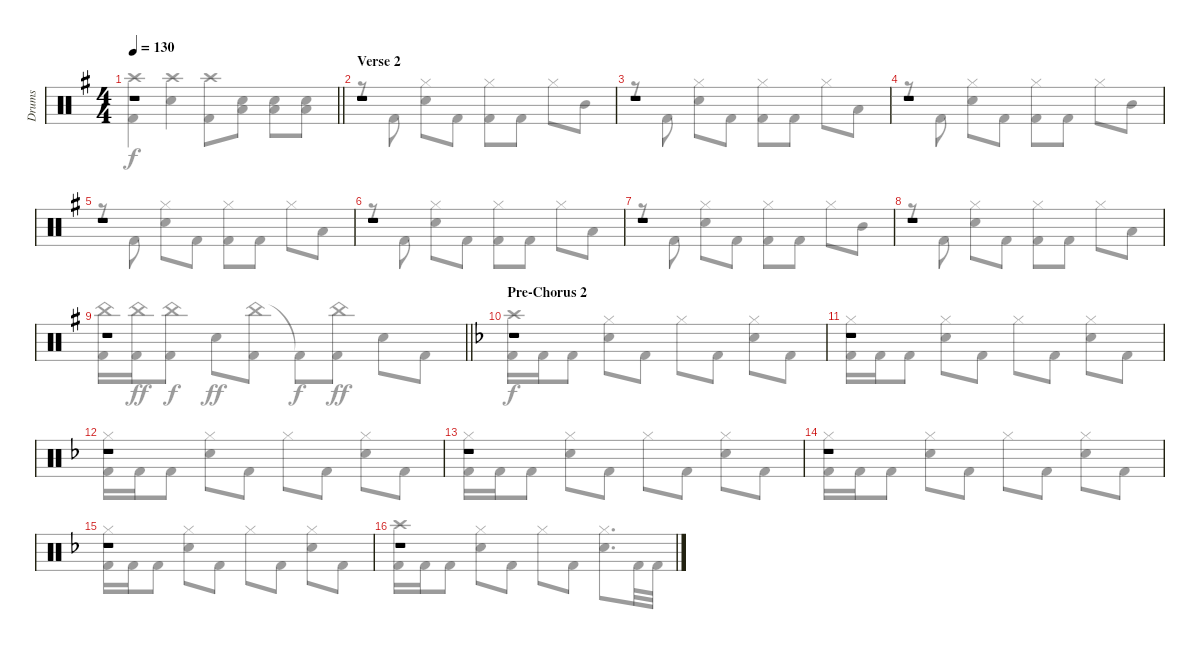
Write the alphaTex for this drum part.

\track ("Drums" "Drums") {instrument percussion}
\staff {score}
\articulation defaults
\voice
\ts (4 4)
\tempo 130
\clef neutral
\barLineRight lightlight
\ks eminor
r.1{dy ff} |
\section ("" "Verse 2")
r.1 |
r.1 |
r.1 |
r.1 |
r.1 |
r.1 |
r.1 |
\barLineRight lightlight
r.1 |
\section ("" "Pre-Chorus 2")
\ks dminor
r.1 |
r.1 |
r.1 |
r.1 |
r.1 |
r.1 |
r.1
\voice
\clef neutral
\ottava regular
\simile none
\barLineRight lightlight
\ks eminor
("Crash high (hit)" "Kick (hit) 2").4{dy f} ("Crash high (hit)" "Snare (hit) 2").4 ("Crash high (hit)" "Kick (hit) 2").8 ("Low Floor Tom (hit)" "Snare (hit) 2").8 ("Low Floor Tom (hit)" "Snare (hit) 2").8 ("Low Floor Tom (hit)" "Snare (hit) 2").8 |
r.8 "Kick (hit) 2".8 ("Hi-Hat (closed)" "Snare (hit) 2").8 "Kick (hit) 2".8 ("Hi-Hat (closed)" "Kick (hit) 2").8 "Kick (hit) 2".8 "Hi-Hat (closed)".8 "Mid Tom (hit)".8 |
r.8 "Kick (hit) 2".8 ("Hi-Hat (closed)" "Snare (hit) 2").8 "Kick (hit) 2".8 ("Hi-Hat (closed)" "Kick (hit) 2").8 "Kick (hit) 2".8 "Hi-Hat (closed)".8 "Low Tom (hit)".8 |
r.8 "Kick (hit) 2".8 ("Hi-Hat (closed)" "Snare (hit) 2").8 "Kick (hit) 2".8 ("Hi-Hat (closed)" "Kick (hit) 2").8 "Kick (hit) 2".8 "Hi-Hat (closed)".8 "Mid Tom (hit)".8 |
r.8 "Kick (hit) 2".8 ("Hi-Hat (closed)" "Snare (hit) 2").8 "Kick (hit) 2".8 ("Hi-Hat (closed)" "Kick (hit) 2").8 "Kick (hit) 2".8 "Hi-Hat (closed)".8 "Low Tom (hit)".8 |
r.8 "Kick (hit) 2".8 ("Hi-Hat (closed)" "Snare (hit) 2").8 "Kick (hit) 2".8 ("Hi-Hat (closed)" "Kick (hit) 2").8 "Kick (hit) 2".8 "Hi-Hat (closed)".8 "Low Tom (hit)".8 |
r.8 "Kick (hit) 2".8 ("Hi-Hat (closed)" "Snare (hit) 2").8 "Kick (hit) 2".8 ("Hi-Hat (closed)" "Kick (hit) 2").8 "Kick (hit) 2".8 "Hi-Hat (closed)".8 "Mid Tom (hit)".8 |
r.8 "Kick (hit) 2".8 ("Hi-Hat (closed)" "Snare (hit) 2").8 "Kick (hit) 2".8 ("Hi-Hat (closed)" "Kick (hit) 2").8 "Kick (hit) 2".8 "Hi-Hat (closed)".8 "Low Tom (hit)".8 |
\barLineRight lightlight
("China (hit)" "Kick (hit) 2").16 ("China (hit)" "Kick (hit) 2").16{dy ff} ("China (hit)" "Kick (hit) 2").8{dy f} "Snare (hit) 2".8{dy ff} ("China (hit)" "Kick (hit) 2").8 "Kick (hit) 2"{t}.8{dy f} ("China (hit)" "Kick (hit) 2").8{dy ff} "Snare (hit) 2".8 "Kick (hit) 2".8 |
\ks dminor
("Crash high (hit)" "Kick (hit) 2").16{dy f} "Kick (hit) 2".16 "Kick (hit) 2".8 ("Hi-Hat (closed)" "Snare (hit) 2").8 "Kick (hit) 2".8 "Hi-Hat (closed)".8 "Kick (hit) 2".8 ("Hi-Hat (closed)" "Snare (hit) 2").8 "Kick (hit) 2".8 |
("Hi-Hat (closed)" "Kick (hit) 2").16 "Kick (hit) 2".16 "Kick (hit) 2".8 ("Hi-Hat (closed)" "Snare (hit) 2").8 "Kick (hit) 2".8 "Hi-Hat (closed)".8 "Kick (hit) 2".8 ("Hi-Hat (closed)" "Snare (hit) 2").8 "Kick (hit) 2".8 |
("Hi-Hat (closed)" "Kick (hit) 2").16 "Kick (hit) 2".16 "Kick (hit) 2".8 ("Hi-Hat (closed)" "Snare (hit) 2").8 "Kick (hit) 2".8 "Hi-Hat (closed)".8 "Kick (hit) 2".8 ("Hi-Hat (closed)" "Snare (hit) 2").8 "Kick (hit) 2".8 |
("Hi-Hat (closed)" "Kick (hit) 2").16 "Kick (hit) 2".16 "Kick (hit) 2".8 ("Hi-Hat (closed)" "Snare (hit) 2").8 "Kick (hit) 2".8 "Hi-Hat (closed)".8 "Kick (hit) 2".8 ("Hi-Hat (closed)" "Snare (hit) 2").8 "Kick (hit) 2".8 |
("Hi-Hat (closed)" "Kick (hit) 2").16 "Kick (hit) 2".16 "Kick (hit) 2".8 ("Hi-Hat (closed)" "Snare (hit) 2").8 "Kick (hit) 2".8 "Hi-Hat (closed)".8 "Kick (hit) 2".8 ("Hi-Hat (closed)" "Snare (hit) 2").8 "Kick (hit) 2".8 |
("Hi-Hat (closed)" "Kick (hit) 2").16 "Kick (hit) 2".16 "Kick (hit) 2".8 ("Hi-Hat (closed)" "Snare (hit) 2").8 "Kick (hit) 2".8 "Hi-Hat (closed)".8 "Kick (hit) 2".8 ("Hi-Hat (closed)" "Snare (hit) 2").8 "Kick (hit) 2".8 |
("Crash high (hit)" "Kick (hit) 2").16 "Kick (hit) 2".16 "Kick (hit) 2".8 ("Hi-Hat (closed)" "Snare (hit) 2").8 "Kick (hit) 2".8 "Hi-Hat (closed)".8 "Kick (hit) 2".8 ("Hi-Hat (closed)" "Snare (hit) 2").8{d} "Kick (hit) 2".32 "Kick (hit) 2".32
